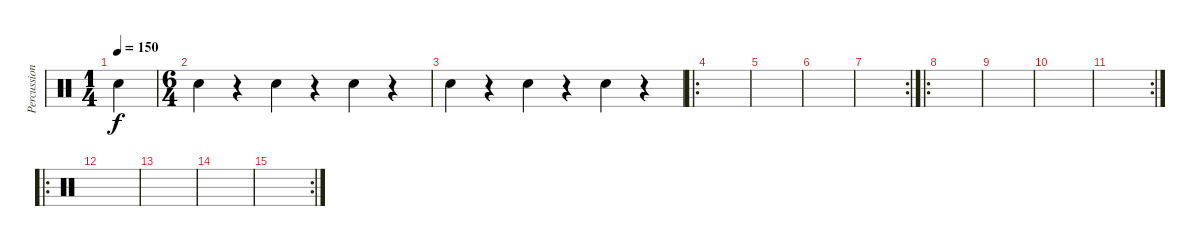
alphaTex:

\track ("Percussion" "Percussion") {instrument percussion}
\staff {score}
\articulation defaults
\ts (1 4)
\tempo 150
\clef neutral
\ks c "Electric Snare (hit)".4{dy f}
|
\ts (6 4)
"Electric Snare (hit)".4 r.4 "Electric Snare (hit)".4 r.4 "Electric Snare (hit)".4 r.4 |
"Electric Snare (hit)".4 r.4 "Electric Snare (hit)".4 r.4 "Electric Snare (hit)".4 r.4 |
\ro
|
|
|
\rc 2
|
\ro
|
|
|
\rc 2
|
\ro
|
|
|
\rc 2
